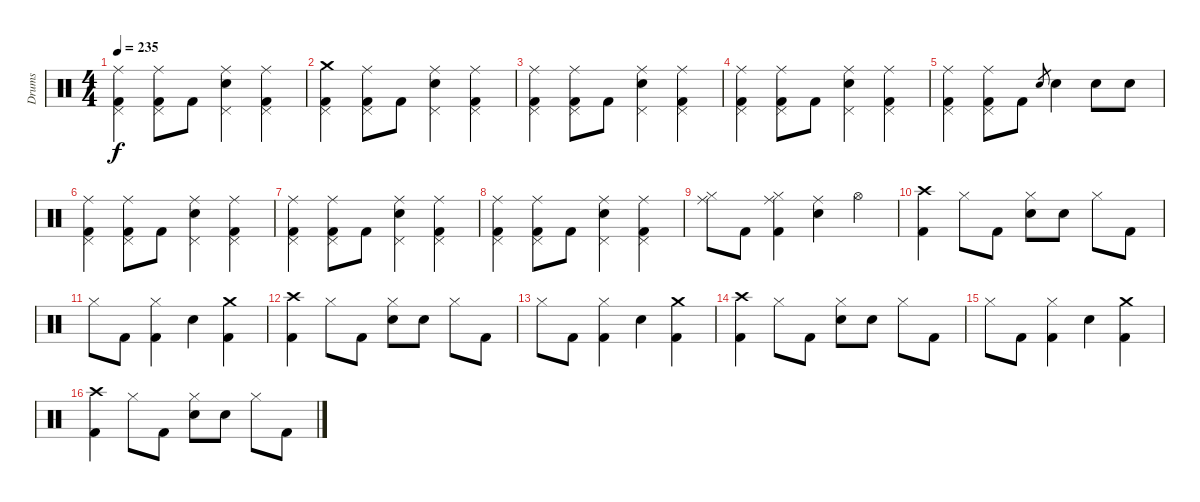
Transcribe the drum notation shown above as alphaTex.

\track ("Drums" "Drums") {instrument percussion}
\staff {score}
\articulation defaults
\ts (4 4)
\tempo 235
\clef neutral
\ks c
("Ride (middle)" "Pedal Hi-Hat (hit)" "Kick (hit) 2").4{dy f} ("Ride (middle)" "Pedal Hi-Hat (hit)" "Kick (hit) 2").8 "Kick (hit) 2".8 ("Ride (middle)" "Pedal Hi-Hat (hit)" "Electric Snare (hit)").4 ("Ride (middle)" "Pedal Hi-Hat (hit)" "Kick (hit) 2").4 |
("Crash medium (hit)" "Pedal Hi-Hat (hit)" "Kick (hit) 2").4 ("Ride (middle)" "Pedal Hi-Hat (hit)" "Kick (hit) 2").8 "Kick (hit) 2".8 ("Ride (middle)" "Pedal Hi-Hat (hit)" "Electric Snare (hit)").4 ("Ride (middle)" "Pedal Hi-Hat (hit)" "Kick (hit) 2").4 |
("Ride (middle)" "Pedal Hi-Hat (hit)" "Kick (hit) 2").4 ("Ride (middle)" "Pedal Hi-Hat (hit)" "Kick (hit) 2").8 "Kick (hit) 2".8 ("Ride (middle)" "Pedal Hi-Hat (hit)" "Electric Snare (hit)").4 ("Ride (middle)" "Pedal Hi-Hat (hit)" "Kick (hit) 2").4 |
("Ride (middle)" "Pedal Hi-Hat (hit)" "Kick (hit) 2").4 ("Ride (middle)" "Pedal Hi-Hat (hit)" "Kick (hit) 2").8 "Kick (hit) 2".8 ("Ride (middle)" "Pedal Hi-Hat (hit)" "Electric Snare (hit)").4 ("Ride (middle)" "Pedal Hi-Hat (hit)" "Kick (hit) 2").4 |
("Ride (middle)" "Pedal Hi-Hat (hit)" "Kick (hit) 2").4 ("Ride (middle)" "Pedal Hi-Hat (hit)" "Kick (hit) 2").8 "Kick (hit) 2".8 "Electric Snare (hit)".8{gr} "Electric Snare (hit)".4 "Electric Snare (hit)".8 "Electric Snare (hit)".8 |
("Ride (middle)" "Pedal Hi-Hat (hit)" "Kick (hit) 2").4 ("Ride (middle)" "Pedal Hi-Hat (hit)" "Kick (hit) 2").8 "Kick (hit) 2".8 ("Ride (middle)" "Pedal Hi-Hat (hit)" "Electric Snare (hit)").4 ("Ride (middle)" "Pedal Hi-Hat (hit)" "Kick (hit) 2").4 |
("Ride (middle)" "Pedal Hi-Hat (hit)" "Kick (hit) 2").4 ("Ride (middle)" "Pedal Hi-Hat (hit)" "Kick (hit) 2").8 "Kick (hit) 2".8 ("Ride (middle)" "Pedal Hi-Hat (hit)" "Electric Snare (hit)").4 ("Ride (middle)" "Pedal Hi-Hat (hit)" "Kick (hit) 2").4 |
("Ride (middle)" "Pedal Hi-Hat (hit)" "Kick (hit) 2").4 ("Ride (middle)" "Pedal Hi-Hat (hit)" "Kick (hit) 2").8 "Kick (hit) 2".8 ("Ride (middle)" "Pedal Hi-Hat (hit)" "Electric Snare (hit)").4 ("Ride (middle)" "Pedal Hi-Hat (hit)" "Kick (hit) 2").4 |
("Ride (middle)" "Hi-Hat (closed)").8 "Kick (hit) 2".8 ("Ride (middle)" "Hi-Hat (closed)" "Kick (hit) 2").4 ("Ride (middle)" "Electric Snare (hit)").4 "Hi-Hat (open)".4 |
("Crash high (hit)" "Kick (hit) 2").4 "Hi-Hat (closed)".8 "Kick (hit) 2".8 ("Hi-Hat (closed)" "Electric Snare (hit)").8 "Electric Snare (hit)".8 "Hi-Hat (closed)".8 "Kick (hit) 2".8 |
"Hi-Hat (closed)".8 "Kick (hit) 2".8 ("Hi-Hat (closed)" "Kick (hit) 2").4 "Electric Snare (hit)".4 ("Crash medium (hit)" "Kick (hit) 2").4 |
("Crash high (hit)" "Kick (hit) 2").4 "Hi-Hat (closed)".8 "Kick (hit) 2".8 ("Hi-Hat (closed)" "Electric Snare (hit)").8 "Electric Snare (hit)".8 "Hi-Hat (closed)".8 "Kick (hit) 2".8 |
"Hi-Hat (closed)".8 "Kick (hit) 2".8 ("Hi-Hat (closed)" "Kick (hit) 2").4 "Electric Snare (hit)".4 ("Crash medium (hit)" "Kick (hit) 2").4 |
("Crash high (hit)" "Kick (hit) 2").4 "Hi-Hat (closed)".8 "Kick (hit) 2".8 ("Hi-Hat (closed)" "Electric Snare (hit)").8 "Electric Snare (hit)".8 "Hi-Hat (closed)".8 "Kick (hit) 2".8 |
"Hi-Hat (closed)".8 "Kick (hit) 2".8 ("Hi-Hat (closed)" "Kick (hit) 2").4 "Electric Snare (hit)".4 ("Crash medium (hit)" "Kick (hit) 2").4 |
("Crash high (hit)" "Kick (hit) 2").4 "Hi-Hat (closed)".8 "Kick (hit) 2".8 ("Hi-Hat (closed)" "Electric Snare (hit)").8 "Electric Snare (hit)".8 "Hi-Hat (closed)".8 "Kick (hit) 2".8
